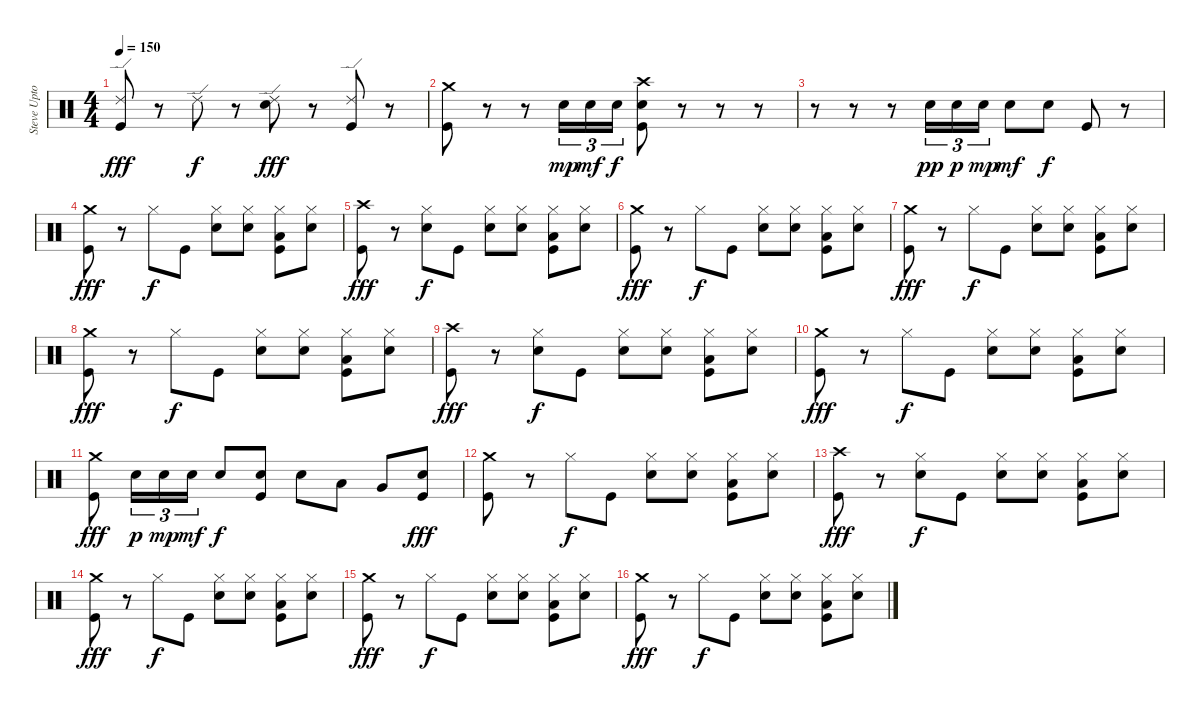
\track ("Steve Upton (drums)" "Steve Upto") {instrument percussion}
\staff {score}
\articulation defaults
\ts (4 4)
\tempo 150
\clef neutral
\ks c
("Ride (edge) 2" "Kick (hit)").8{dy fff} r.8 "Ride (edge) 2".8{dy f} r.8 ("Ride (edge) 2" "Electric Snare (hit)").8{dy fff} r.8 ("Ride (edge) 2" "Kick (hit)").8 r.8 |
("Crash medium (hit)" "Kick (hit)").8 r.8 r.8 "Electric Snare (hit)".16{tu (3 2) dy mp} "Electric Snare (hit)".16{tu (3 2) dy mf} "Electric Snare (hit)".16{tu (3 2) dy f} ("Crash high (hit)" "Electric Snare (hit)" "Kick (hit)").8 r.8 r.8 r.8 |
r.8 r.8 r.8 "Electric Snare (hit)".16{tu (3 2) dy pp} "Electric Snare (hit)".16{tu (3 2) dy p} "Electric Snare (hit)".16{tu (3 2) dy mp} "Electric Snare (hit)".8{dy mf} "Electric Snare (hit)".8{dy f} "Kick (hit)".8 r.8 |
("Crash medium (hit)" "Kick (hit)").8{dy fff} r.8 "Hi-Hat (closed)".8{dy f} "Kick (hit)".8 ("Hi-Hat (closed)" "Electric Snare (hit)").8 ("Hi-Hat (closed)" "Electric Snare (hit)").8 ("Hi-Hat (closed)" "Low Tom (hit)" "Kick (hit)").8 ("Hi-Hat (closed)" "Electric Snare (hit)").8 |
("Crash high (hit)" "Kick (hit)").8{dy fff} r.8 ("Hi-Hat (closed)" "Electric Snare (hit)").8{dy f} "Kick (hit)".8 ("Hi-Hat (closed)" "Electric Snare (hit)").8 ("Hi-Hat (closed)" "Electric Snare (hit)").8 ("Hi-Hat (closed)" "Low Tom (hit)" "Kick (hit)").8 ("Hi-Hat (closed)" "Electric Snare (hit)").8 |
("Crash medium (hit)" "Kick (hit)").8{dy fff} r.8 "Hi-Hat (closed)".8{dy f} "Kick (hit)".8 ("Hi-Hat (closed)" "Electric Snare (hit)").8 ("Hi-Hat (closed)" "Electric Snare (hit)").8 ("Hi-Hat (closed)" "Low Tom (hit)" "Kick (hit)").8 ("Hi-Hat (closed)" "Electric Snare (hit)").8 |
("Crash medium (hit)" "Kick (hit)").8{dy fff} r.8 "Hi-Hat (closed)".8{dy f} "Kick (hit)".8 ("Hi-Hat (closed)" "Electric Snare (hit)").8 ("Hi-Hat (closed)" "Electric Snare (hit)").8 ("Hi-Hat (closed)" "Low Tom (hit)" "Kick (hit)").8 ("Hi-Hat (closed)" "Electric Snare (hit)").8 |
("Crash medium (hit)" "Kick (hit)").8{dy fff} r.8 "Hi-Hat (closed)".8{dy f} "Kick (hit)".8 ("Hi-Hat (closed)" "Electric Snare (hit)").8 ("Hi-Hat (closed)" "Electric Snare (hit)").8 ("Hi-Hat (closed)" "Low Tom (hit)" "Kick (hit)").8 ("Hi-Hat (closed)" "Electric Snare (hit)").8 |
("Crash high (hit)" "Kick (hit)").8{dy fff} r.8 ("Hi-Hat (closed)" "Electric Snare (hit)").8{dy f} "Kick (hit)".8 ("Hi-Hat (closed)" "Electric Snare (hit)").8 ("Hi-Hat (closed)" "Electric Snare (hit)").8 ("Hi-Hat (closed)" "Low Tom (hit)" "Kick (hit)").8 ("Hi-Hat (closed)" "Electric Snare (hit)").8 |
("Crash medium (hit)" "Kick (hit)").8{dy fff} r.8 "Hi-Hat (closed)".8{dy f} "Kick (hit)".8 ("Hi-Hat (closed)" "Electric Snare (hit)").8 ("Hi-Hat (closed)" "Electric Snare (hit)").8 ("Hi-Hat (closed)" "Low Tom (hit)" "Kick (hit)").8 ("Hi-Hat (closed)" "Electric Snare (hit)").8 |
("Crash medium (hit)" "Kick (hit)").8{dy fff} "Electric Snare (hit)".16{tu (3 2) dy p} "Electric Snare (hit)".16{tu (3 2) dy mp} "Electric Snare (hit)".16{tu (3 2) dy mf} "Electric Snare (hit)".8{dy f} ("Electric Snare (hit)" "Kick (hit)").8 "Electric Snare (hit)".8 "Low Tom (hit)".8 "Very Low Tom (hit)".8 ("Electric Snare (hit)" "Kick (hit)").8{dy fff} |
("Crash medium (hit)" "Kick (hit)").8 r.8 "Hi-Hat (closed)".8{dy f} "Kick (hit)".8 ("Hi-Hat (closed)" "Electric Snare (hit)").8 ("Hi-Hat (closed)" "Electric Snare (hit)").8 ("Hi-Hat (closed)" "Low Tom (hit)" "Kick (hit)").8 ("Hi-Hat (closed)" "Electric Snare (hit)").8 |
("Crash high (hit)" "Kick (hit)").8{dy fff} r.8 ("Hi-Hat (closed)" "Electric Snare (hit)").8{dy f} "Kick (hit)".8 ("Hi-Hat (closed)" "Electric Snare (hit)").8 ("Hi-Hat (closed)" "Electric Snare (hit)").8 ("Hi-Hat (closed)" "Low Tom (hit)" "Kick (hit)").8 ("Hi-Hat (closed)" "Electric Snare (hit)").8 |
("Crash medium (hit)" "Kick (hit)").8{dy fff} r.8 "Hi-Hat (closed)".8{dy f} "Kick (hit)".8 ("Hi-Hat (closed)" "Electric Snare (hit)").8 ("Hi-Hat (closed)" "Electric Snare (hit)").8 ("Hi-Hat (closed)" "Low Tom (hit)" "Kick (hit)").8 ("Hi-Hat (closed)" "Electric Snare (hit)").8 |
("Crash medium (hit)" "Kick (hit)").8{dy fff} r.8 "Hi-Hat (closed)".8{dy f} "Kick (hit)".8 ("Hi-Hat (closed)" "Electric Snare (hit)").8 ("Hi-Hat (closed)" "Electric Snare (hit)").8 ("Hi-Hat (closed)" "Low Tom (hit)" "Kick (hit)").8 ("Hi-Hat (closed)" "Electric Snare (hit)").8 |
("Crash medium (hit)" "Kick (hit)").8{dy fff} r.8 "Hi-Hat (closed)".8{dy f} "Kick (hit)".8 ("Hi-Hat (closed)" "Electric Snare (hit)").8 ("Hi-Hat (closed)" "Electric Snare (hit)").8 ("Hi-Hat (closed)" "Low Tom (hit)" "Kick (hit)").8 ("Hi-Hat (closed)" "Electric Snare (hit)").8
